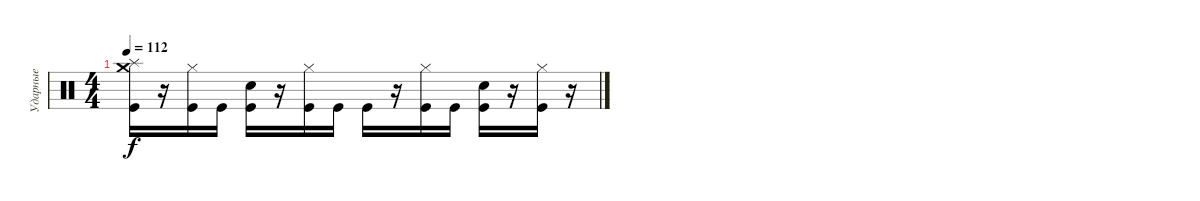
\track ("Ударные" "Ударные") {instrument percussion}
\staff {score}
\articulation defaults
\ts (4 4)
\tempo 112
\clef neutral
\ks c
("Splash (hit)" "Crash medium (hit)" "Kick (hit)").16{dy f volume 2} r.16 ("Hi-Hat (closed)" "Kick (hit)").16 "Kick (hit)".16 ("Snare (hit) 2" "Kick (hit)").16 r.16 ("Hi-Hat (closed)" "Kick (hit)").16 "Kick (hit)".16 "Kick (hit)".16 r.16 ("Hi-Hat (closed)" "Kick (hit)").16 "Kick (hit)".16 ("Snare (hit) 2" "Kick (hit)").16 r.16 ("Hi-Hat (closed)" "Kick (hit)").16 r.16
